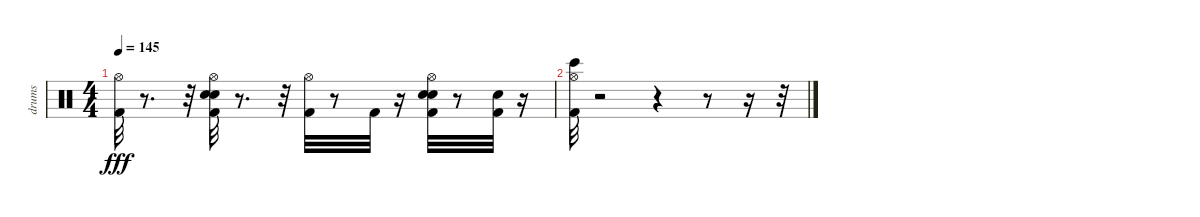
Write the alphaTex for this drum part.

\track ("drums" "drums") {instrument percussion}
\staff {score}
\articulation defaults
\ts (4 4)
\tempo 145
\clef neutral
\ks c
("Hi-Hat (open)" "Kick (hit) 2").32{dy fff} r.8{d} r.32 ("Hi-Hat (open)" "Kick (hit) 2" "Snare (hit) 2" "Electric Snare (hit)").32 r.8{d} r.32 ("Hi-Hat (open)" "Kick (hit) 2").32 r.8 "Kick (hit) 2".32 r.16 ("Hi-Hat (open)" "Kick (hit) 2" "Snare (hit) 2" "Electric Snare (hit)").32 r.8 ("Snare (hit) 2" "Kick (hit) 2").32 r.16 |
("Kick (hit) 2" "Bongo High (hit)" "Hi-Hat (open)").32 r.2 r.4 r.8 r.16 r.32
